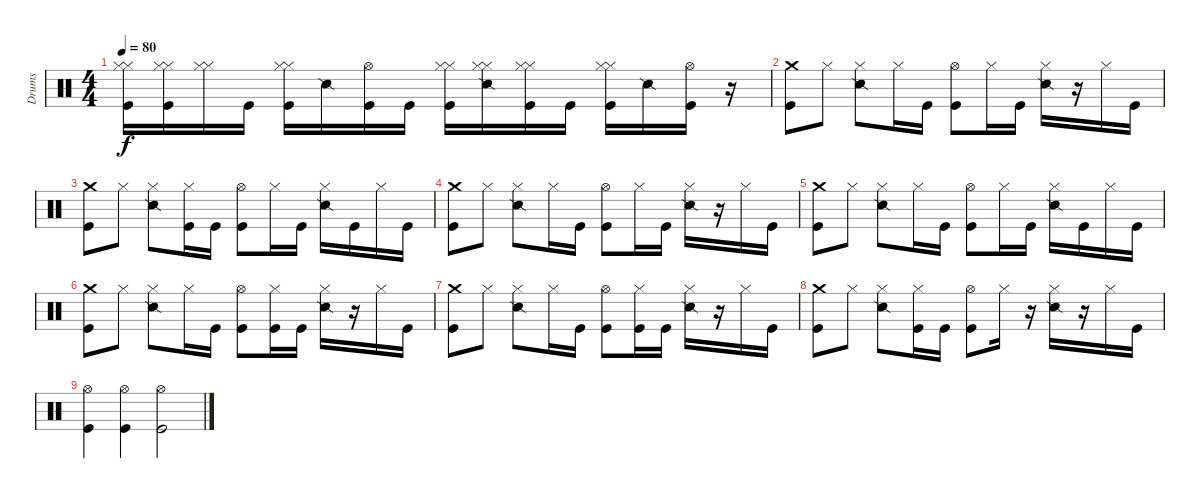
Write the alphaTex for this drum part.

\track ("Drums" "Drums") {instrument percussion}
\staff {score}
\articulation defaults
\ts (4 4)
\tempo 80
\clef neutral
\ks c
("Hi-Hat (closed)" "Hi-Hat (closed)" "Kick (hit)").16{dy f} ("Hi-Hat (closed)" "Hi-Hat (closed)" "Kick (hit)").16 ("Hi-Hat (closed)" "Hi-Hat (closed)").16 "Kick (hit)".16 ("Hi-Hat (closed)" "Hi-Hat (closed)" "Kick (hit)").16 "Snare (side stick) 2".16 ("Hi-Hat (open)" "Kick (hit)").16 "Kick (hit)".16 ("Hi-Hat (closed)" "Hi-Hat (closed)" "Kick (hit)").16 ("Hi-Hat (closed)" "Hi-Hat (closed)" "Snare (side stick) 2").16 ("Hi-Hat (closed)" "Hi-Hat (closed)" "Kick (hit)").16 "Kick (hit)".16 ("Hi-Hat (closed)" "Hi-Hat (closed)" "Kick (hit)").16 "Snare (side stick) 2".16 ("Hi-Hat (open)" "Kick (hit)").16 r.16 |
("Crash medium (hit)" "Kick (hit)").8{volume 12} "Hi-Hat (closed)".8 ("Hi-Hat (closed)" "Snare (side stick) 2").8 "Hi-Hat (closed)".16 "Kick (hit)".16 ("Hi-Hat (open)" "Kick (hit)").8 "Hi-Hat (closed)".16 "Kick (hit)".16 ("Hi-Hat (closed)" "Snare (side stick) 2").16 r.16 "Hi-Hat (closed)".16 "Kick (hit)".16 |
("Crash medium (hit)" "Kick (hit)").8 "Hi-Hat (closed)".8 ("Hi-Hat (closed)" "Snare (side stick) 2").8 ("Hi-Hat (closed)" "Kick (hit)").16 "Kick (hit)".16 ("Hi-Hat (open)" "Kick (hit)").8 "Hi-Hat (closed)".16 "Kick (hit)".16 ("Hi-Hat (closed)" "Snare (side stick) 2").16 "Kick (hit)".16 "Hi-Hat (closed)".16 "Kick (hit)".16 |
("Crash medium (hit)" "Kick (hit)").8 "Hi-Hat (closed)".8 ("Hi-Hat (closed)" "Snare (side stick) 2").8 "Hi-Hat (closed)".16 "Kick (hit)".16 ("Hi-Hat (open)" "Kick (hit)").8 "Hi-Hat (closed)".16 "Kick (hit)".16 ("Hi-Hat (closed)" "Snare (side stick) 2").16 r.16 "Hi-Hat (closed)".16 "Kick (hit)".16 |
("Crash medium (hit)" "Kick (hit)").8 "Hi-Hat (closed)".8 ("Hi-Hat (closed)" "Snare (side stick) 2").8 "Hi-Hat (closed)".16 "Kick (hit)".16 ("Hi-Hat (open)" "Kick (hit)").8 "Hi-Hat (closed)".16 "Kick (hit)".16 ("Hi-Hat (closed)" "Snare (side stick) 2").16 "Kick (hit)".16 "Hi-Hat (closed)".16 "Kick (hit)".16 |
("Crash medium (hit)" "Kick (hit)").8 "Hi-Hat (closed)".8 ("Hi-Hat (closed)" "Snare (side stick) 2").8 "Hi-Hat (closed)".16 "Kick (hit)".16 ("Hi-Hat (open)" "Kick (hit)").8 ("Hi-Hat (closed)" "Kick (hit)").16 "Kick (hit)".16 ("Hi-Hat (closed)" "Snare (side stick) 2").16 r.16 "Hi-Hat (closed)".16 "Kick (hit)".16 |
("Crash medium (hit)" "Kick (hit)").8 "Hi-Hat (closed)".8 ("Hi-Hat (closed)" "Snare (side stick) 2").8 "Hi-Hat (closed)".16 "Kick (hit)".16 ("Hi-Hat (open)" "Kick (hit)").8 ("Hi-Hat (closed)" "Kick (hit)").16 "Kick (hit)".16 ("Hi-Hat (closed)" "Snare (side stick) 2").16 r.16 "Hi-Hat (closed)".16 "Kick (hit)".16 |
("Crash medium (hit)" "Kick (hit)").8 "Hi-Hat (closed)".8 ("Hi-Hat (closed)" "Snare (side stick) 2").8 ("Hi-Hat (closed)" "Kick (hit)").16 "Kick (hit)".16 ("Hi-Hat (open)" "Kick (hit)").8 "Hi-Hat (closed)".16 r.16 ("Hi-Hat (closed)" "Snare (side stick) 2").16 r.16 "Hi-Hat (closed)".16 "Kick (hit)".16 |
("Hi-Hat (open)" "Kick (hit)").4 ("Hi-Hat (open)" "Kick (hit)").4 ("Hi-Hat (open)" "Kick (hit)").2
